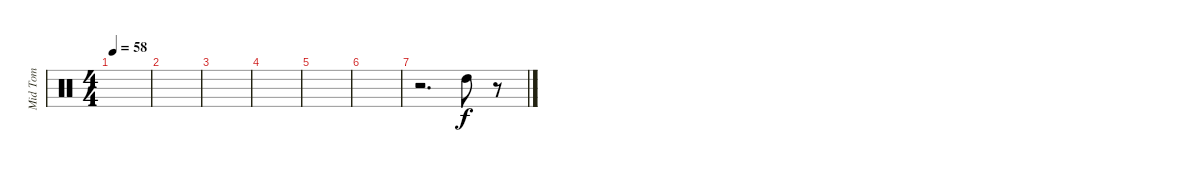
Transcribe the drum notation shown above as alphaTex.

\track ("Mid Tom" "Mid Tom") {instrument percussion}
\staff {score}
\articulation defaults
\ts (4 4)
\tempo 58
\clef neutral
\ks c
|
|
|
|
|
|
r.2{d} "High Tom (hit)".8 r.8
